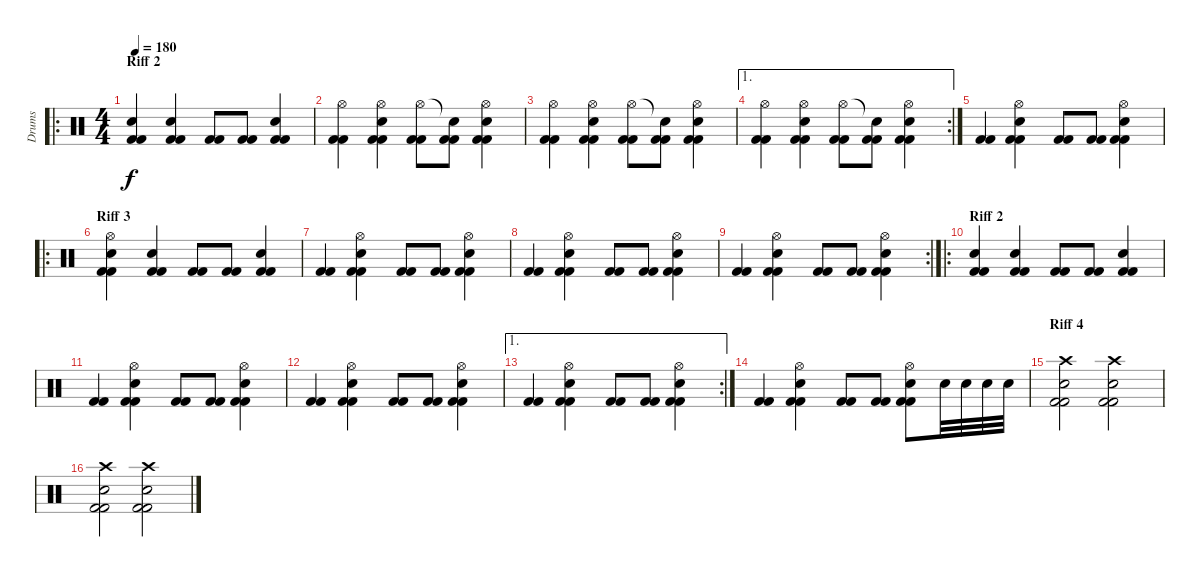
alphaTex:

\track ("Drums" "Drums") {instrument percussion}
\staff {score}
\articulation defaults
\ro
\ts (4 4)
\section ("" "Riff 2")
\tempo 180
\clef neutral
\ks c
("Electric Snare (hit)" "Kick (hit) 2" "Kick (hit) 2").4{dy f} ("Snare (hit) 2" "Kick (hit) 2" "Kick (hit) 2").4 ("Kick (hit) 2" "Kick (hit) 2").8 ("Kick (hit) 2" "Kick (hit) 2").8 ("Snare (hit) 2" "Kick (hit) 2" "Kick (hit) 2").4 |
("Hi-Hat (open)" "Kick (hit) 2" "Kick (hit) 2").4 ("Hi-Hat (open)" "Snare (hit) 2" "Kick (hit) 2" "Kick (hit) 2").4 ("Hi-Hat (open)" "Kick (hit) 2" "Kick (hit) 2").8 ("Snare (hit)"{t} "Kick (hit) 2" "Kick (hit) 2").8 ("Hi-Hat (open)" "Snare (hit) 2" "Kick (hit) 2" "Kick (hit) 2").4 |
("Hi-Hat (open)" "Kick (hit) 2" "Kick (hit) 2").4 ("Hi-Hat (open)" "Snare (hit) 2" "Kick (hit) 2" "Kick (hit) 2").4 ("Hi-Hat (open)" "Kick (hit) 2" "Kick (hit) 2").8 ("Snare (hit)"{t} "Kick (hit) 2" "Kick (hit) 2").8 ("Hi-Hat (open)" "Snare (hit) 2" "Kick (hit) 2" "Kick (hit) 2").4 |
\ae 1
\rc 2
("Hi-Hat (open)" "Kick (hit) 2" "Kick (hit) 2").4 ("Hi-Hat (open)" "Snare (hit) 2" "Kick (hit) 2" "Kick (hit) 2").4 ("Hi-Hat (open)" "Kick (hit) 2" "Kick (hit) 2").8 ("Snare (hit)"{t} "Kick (hit) 2" "Kick (hit) 2").8 ("Hi-Hat (open)" "Snare (hit) 2" "Kick (hit) 2" "Kick (hit) 2").4 |
("Kick (hit) 2" "Kick (hit) 2").4 ("Hi-Hat (open)" "Snare (hit) 2" "Kick (hit) 2" "Kick (hit) 2").4 ("Kick (hit) 2" "Kick (hit) 2").8 ("Kick (hit) 2" "Kick (hit) 2").8 ("Hi-Hat (open)" "Snare (hit) 2" "Kick (hit) 2" "Kick (hit) 2").4 |
\ro
\section ("" "Riff 3")
("Hi-Hat (open)" "Snare (hit) 2" "Kick (hit) 2" "Kick (hit) 2").4 ("Electric Snare (hit)" "Kick (hit) 2" "Kick (hit) 2").4 ("Kick (hit) 2" "Kick (hit) 2").8 ("Kick (hit) 2" "Kick (hit) 2").8 ("Snare (hit) 2" "Kick (hit) 2" "Kick (hit) 2").4 |
("Kick (hit) 2" "Kick (hit) 2").4 ("Hi-Hat (open)" "Snare (hit) 2" "Kick (hit) 2" "Kick (hit) 2").4 ("Kick (hit) 2" "Kick (hit) 2").8 ("Kick (hit) 2" "Kick (hit) 2").8 ("Hi-Hat (open)" "Snare (hit) 2" "Kick (hit) 2" "Kick (hit) 2").4 |
("Kick (hit) 2" "Kick (hit) 2").4 ("Hi-Hat (open)" "Snare (hit) 2" "Kick (hit) 2" "Kick (hit) 2").4 ("Kick (hit) 2" "Kick (hit) 2").8 ("Kick (hit) 2" "Kick (hit) 2").8 ("Hi-Hat (open)" "Snare (hit) 2" "Kick (hit) 2" "Kick (hit) 2").4 |
\rc 2
("Kick (hit) 2" "Kick (hit) 2").4 ("Hi-Hat (open)" "Snare (hit) 2" "Kick (hit) 2" "Kick (hit) 2").4 ("Kick (hit) 2" "Kick (hit) 2").8 ("Kick (hit) 2" "Kick (hit) 2").8 ("Hi-Hat (open)" "Snare (hit) 2" "Kick (hit) 2" "Kick (hit) 2").4 |
\ro
\section ("" "Riff 2")
("Electric Snare (hit)" "Kick (hit) 2" "Kick (hit) 2").4 ("Snare (hit) 2" "Kick (hit) 2" "Kick (hit) 2").4 ("Kick (hit) 2" "Kick (hit) 2").8 ("Kick (hit) 2" "Kick (hit) 2").8 ("Snare (hit) 2" "Kick (hit) 2" "Kick (hit) 2").4 |
("Kick (hit) 2" "Kick (hit) 2").4 ("Hi-Hat (open)" "Snare (hit) 2" "Kick (hit) 2" "Kick (hit) 2").4 ("Kick (hit) 2" "Kick (hit) 2").8 ("Kick (hit) 2" "Kick (hit) 2").8 ("Hi-Hat (open)" "Snare (hit) 2" "Kick (hit) 2" "Kick (hit) 2").4 |
("Kick (hit) 2" "Kick (hit) 2").4 ("Hi-Hat (open)" "Snare (hit) 2" "Kick (hit) 2" "Kick (hit) 2").4 ("Kick (hit) 2" "Kick (hit) 2").8 ("Kick (hit) 2" "Kick (hit) 2").8 ("Hi-Hat (open)" "Snare (hit) 2" "Kick (hit) 2" "Kick (hit) 2").4 |
\ae 1
\rc 2
("Kick (hit) 2" "Kick (hit) 2").4 ("Hi-Hat (open)" "Snare (hit) 2" "Kick (hit) 2" "Kick (hit) 2").4 ("Kick (hit) 2" "Kick (hit) 2").8 ("Kick (hit) 2" "Kick (hit) 2").8 ("Hi-Hat (open)" "Snare (hit) 2" "Kick (hit) 2" "Kick (hit) 2").4 |
("Kick (hit) 2" "Kick (hit) 2").4 ("Hi-Hat (open)" "Snare (hit) 2" "Kick (hit) 2" "Kick (hit) 2").4 ("Kick (hit) 2" "Kick (hit) 2").8 ("Kick (hit) 2" "Kick (hit) 2").8 ("Hi-Hat (open)" "Snare (hit) 2" "Kick (hit) 2" "Kick (hit) 2").8 "Snare (hit) 2".32 "Snare (hit) 2".32 "Snare (hit) 2".32 "Snare (hit) 2".32 |
\section ("" "Riff 4")
("Crash high (hit)" "Snare (hit) 2" "Kick (hit) 2" "Kick (hit) 2").2 ("Crash high (hit)" "Electric Snare (hit)" "Kick (hit) 2" "Kick (hit) 2").2 |
("Crash high (hit)" "Snare (hit) 2" "Kick (hit) 2" "Kick (hit) 2").2 ("Crash high (hit)" "Electric Snare (hit)" "Kick (hit) 2" "Kick (hit) 2").2
